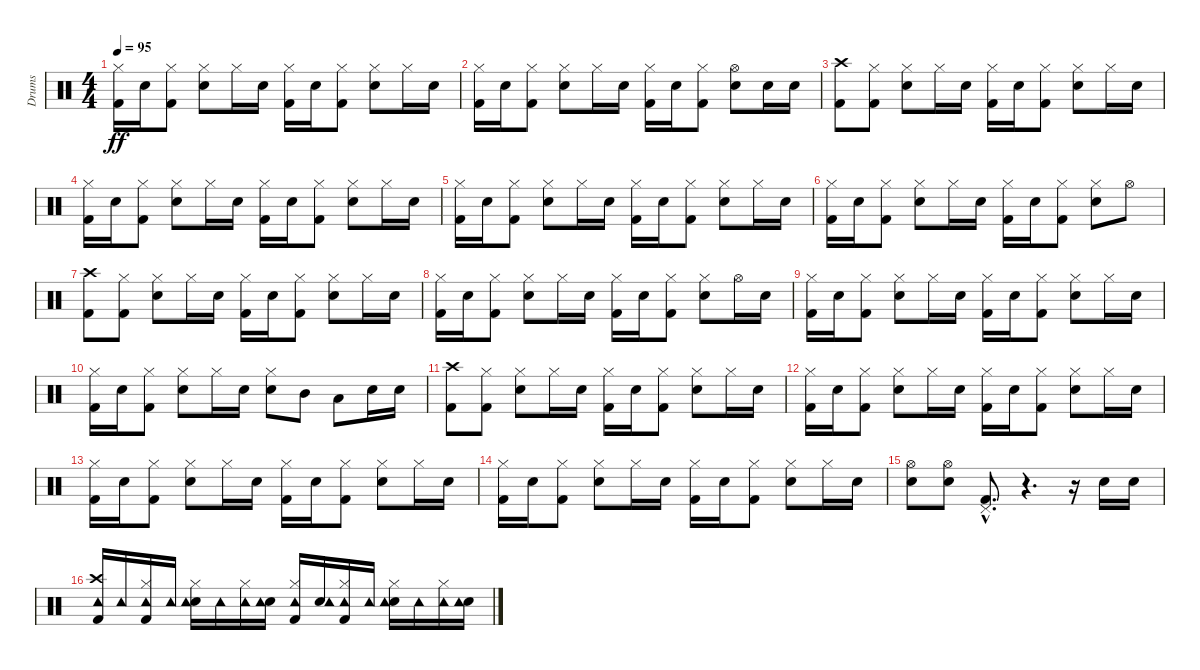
\track ("Drums" "Drums") {instrument percussion}
\staff {score}
\articulation defaults
\ts (4 4)
\tempo 95
\clef neutral
\ks c
("Kick (hit) 2" "Hi-Hat (closed)").16{dy ff} "Electric Snare (hit)".16 ("Kick (hit) 2" "Hi-Hat (closed)").8 ("Electric Snare (hit)" "Hi-Hat (closed)").8 "Hi-Hat (closed)".16 "Electric Snare (hit)".16 ("Kick (hit) 2" "Hi-Hat (closed)").16 "Electric Snare (hit)".16 ("Kick (hit) 2" "Hi-Hat (closed)").8 ("Electric Snare (hit)" "Hi-Hat (closed)").8 "Hi-Hat (closed)".16 "Electric Snare (hit)".16 |
("Kick (hit) 2" "Hi-Hat (closed)").16 "Electric Snare (hit)".16 ("Kick (hit) 2" "Hi-Hat (closed)").8 ("Electric Snare (hit)" "Hi-Hat (closed)").8 "Hi-Hat (closed)".16 "Electric Snare (hit)".16 ("Kick (hit) 2" "Hi-Hat (closed)").16 "Electric Snare (hit)".16 ("Kick (hit) 2" "Hi-Hat (closed)").8 ("Electric Snare (hit)" "Hi-Hat (open)").8 "Electric Snare (hit)".16 "Electric Snare (hit)".16 |
("Kick (hit) 2" "Crash high (hit)").8 ("Kick (hit) 2" "Hi-Hat (closed)").8 ("Electric Snare (hit)" "Hi-Hat (closed)").8 "Hi-Hat (closed)".16 "Electric Snare (hit)".16 ("Kick (hit) 2" "Hi-Hat (closed)").16 "Electric Snare (hit)".16 ("Kick (hit) 2" "Hi-Hat (closed)").8 ("Electric Snare (hit)" "Hi-Hat (closed)").8 "Hi-Hat (closed)".16 "Electric Snare (hit)".16 |
("Kick (hit) 2" "Hi-Hat (closed)").16 "Electric Snare (hit)".16 ("Kick (hit) 2" "Hi-Hat (closed)").8 ("Electric Snare (hit)" "Hi-Hat (closed)").8 "Hi-Hat (closed)".16 "Electric Snare (hit)".16 ("Kick (hit) 2" "Hi-Hat (closed)").16 "Electric Snare (hit)".16 ("Kick (hit) 2" "Hi-Hat (closed)").8 ("Electric Snare (hit)" "Hi-Hat (closed)").8 "Hi-Hat (closed)".16 "Electric Snare (hit)".16 |
("Kick (hit) 2" "Hi-Hat (closed)").16 "Electric Snare (hit)".16 ("Kick (hit) 2" "Hi-Hat (closed)").8 ("Electric Snare (hit)" "Hi-Hat (closed)").8 "Hi-Hat (closed)".16 "Electric Snare (hit)".16 ("Kick (hit) 2" "Hi-Hat (closed)").16 "Electric Snare (hit)".16 ("Kick (hit) 2" "Hi-Hat (closed)").8 ("Electric Snare (hit)" "Hi-Hat (closed)").8 "Hi-Hat (closed)".16 "Electric Snare (hit)".16 |
("Kick (hit) 2" "Hi-Hat (closed)").16 "Electric Snare (hit)".16 ("Kick (hit) 2" "Hi-Hat (closed)").8 ("Electric Snare (hit)" "Hi-Hat (closed)").8 "Hi-Hat (closed)".16 "Electric Snare (hit)".16 ("Kick (hit) 2" "Hi-Hat (closed)").16 "Electric Snare (hit)".16 ("Kick (hit) 2" "Hi-Hat (closed)").8 ("Electric Snare (hit)" "Hi-Hat (closed)").8 "Hi-Hat (open)".8 |
("Kick (hit) 2" "Crash high (hit)").8 ("Kick (hit) 2" "Hi-Hat (closed)").8 ("Electric Snare (hit)" "Hi-Hat (closed)").8 "Hi-Hat (closed)".16 "Electric Snare (hit)".16 ("Kick (hit) 2" "Hi-Hat (closed)").16 "Electric Snare (hit)".16 ("Kick (hit) 2" "Hi-Hat (closed)").8 ("Electric Snare (hit)" "Hi-Hat (closed)").8 "Hi-Hat (closed)".16 "Electric Snare (hit)".16 |
("Kick (hit) 2" "Hi-Hat (closed)").16 "Electric Snare (hit)".16 ("Kick (hit) 2" "Hi-Hat (closed)").8 ("Electric Snare (hit)" "Hi-Hat (closed)").8 "Hi-Hat (closed)".16 "Electric Snare (hit)".16 ("Kick (hit) 2" "Hi-Hat (closed)").16 "Electric Snare (hit)".16 ("Kick (hit) 2" "Hi-Hat (closed)").8 ("Electric Snare (hit)" "Hi-Hat (closed)").8 "Hi-Hat (open)".16 "Electric Snare (hit)".16 |
("Kick (hit) 2" "Hi-Hat (closed)").16 "Electric Snare (hit)".16 ("Kick (hit) 2" "Hi-Hat (closed)").8 ("Electric Snare (hit)" "Hi-Hat (closed)").8 "Hi-Hat (closed)".16 "Electric Snare (hit)".16 ("Kick (hit) 2" "Hi-Hat (closed)").16 "Electric Snare (hit)".16 ("Kick (hit) 2" "Hi-Hat (closed)").8 ("Electric Snare (hit)" "Hi-Hat (closed)").8 "Hi-Hat (closed)".16 "Electric Snare (hit)".16 |
("Kick (hit) 2" "Hi-Hat (closed)").16 "Electric Snare (hit)".16 ("Kick (hit) 2" "Hi-Hat (closed)").8 ("Electric Snare (hit)" "Hi-Hat (closed)").8 "Hi-Hat (closed)".16 "Electric Snare (hit)".16 ("Electric Snare (hit)" "Hi-Hat (closed)").8 "Mid Tom (hit)".8 "Low Tom (hit)".8 "Electric Snare (hit)".16 "Electric Snare (hit)".16 |
("Kick (hit) 2" "Crash high (hit)").8 ("Kick (hit) 2" "Hi-Hat (closed)").8 ("Electric Snare (hit)" "Hi-Hat (closed)").8 "Hi-Hat (closed)".16 "Electric Snare (hit)".16 ("Kick (hit) 2" "Hi-Hat (closed)").16 "Electric Snare (hit)".16 ("Kick (hit) 2" "Hi-Hat (closed)").8 ("Electric Snare (hit)" "Hi-Hat (closed)").8 "Hi-Hat (closed)".16 "Electric Snare (hit)".16 |
("Kick (hit) 2" "Hi-Hat (closed)").16 "Electric Snare (hit)".16 ("Kick (hit) 2" "Hi-Hat (closed)").8 ("Electric Snare (hit)" "Hi-Hat (closed)").8 "Hi-Hat (closed)".16 "Electric Snare (hit)".16 ("Kick (hit) 2" "Hi-Hat (closed)").16 "Electric Snare (hit)".16 ("Kick (hit) 2" "Hi-Hat (closed)").8 ("Electric Snare (hit)" "Hi-Hat (closed)").8 "Hi-Hat (closed)".16 "Electric Snare (hit)".16 |
("Kick (hit) 2" "Hi-Hat (closed)").16 "Electric Snare (hit)".16 ("Kick (hit) 2" "Hi-Hat (closed)").8 ("Electric Snare (hit)" "Hi-Hat (closed)").8 "Hi-Hat (closed)".16 "Electric Snare (hit)".16 ("Kick (hit) 2" "Hi-Hat (closed)").16 "Electric Snare (hit)".16 ("Kick (hit) 2" "Hi-Hat (closed)").8 ("Electric Snare (hit)" "Hi-Hat (closed)").8 "Hi-Hat (closed)".16 "Electric Snare (hit)".16 |
("Kick (hit) 2" "Hi-Hat (closed)").16 "Electric Snare (hit)".16 ("Kick (hit) 2" "Hi-Hat (closed)").8 ("Electric Snare (hit)" "Hi-Hat (closed)").8 "Hi-Hat (closed)".16 "Electric Snare (hit)".16 ("Kick (hit) 2" "Hi-Hat (closed)").16 "Electric Snare (hit)".16 ("Kick (hit) 2" "Hi-Hat (closed)").8 ("Electric Snare (hit)" "Hi-Hat (closed)").8 "Hi-Hat (closed)".16 "Electric Snare (hit)".16 |
("Electric Snare (hit)" "Hi-Hat (open)").8 ("Electric Snare (hit)" "Hi-Hat (open)").8 ("Kick (hit) 2"{hac} "Pedal Hi-Hat (hit)"{hac}).8{d} r.4{d} r.16 "Hand Clap (hit)".16 "Hand Clap (hit)".16 |
("Kick (hit) 2" "Crash high (hit)" "Tambourine (hit)").16 "Tambourine (hit)".16 ("Kick (hit) 2" "Hi-Hat (closed)" "Tambourine (hit)").16 "Tambourine (hit)".16 ("Electric Snare (hit)" "Hi-Hat (closed)" "Tambourine (hit)").16 "Tambourine (hit)".16 ("Hi-Hat (closed)" "Tambourine (hit)").16 ("Electric Snare (hit)" "Tambourine (hit)").16 ("Kick (hit) 2" "Hi-Hat (closed)" "Tambourine (hit)").16 ("Electric Snare (hit)" "Tambourine (hit)").16 ("Kick (hit) 2" "Hi-Hat (closed)" "Tambourine (hit)").16 "Tambourine (hit)".16 ("Electric Snare (hit)" "Hi-Hat (closed)" "Tambourine (hit)").16 "Tambourine (hit)".16 ("Hi-Hat (closed)" "Tambourine (hit)").16 ("Electric Snare (hit)" "Tambourine (hit)").16
